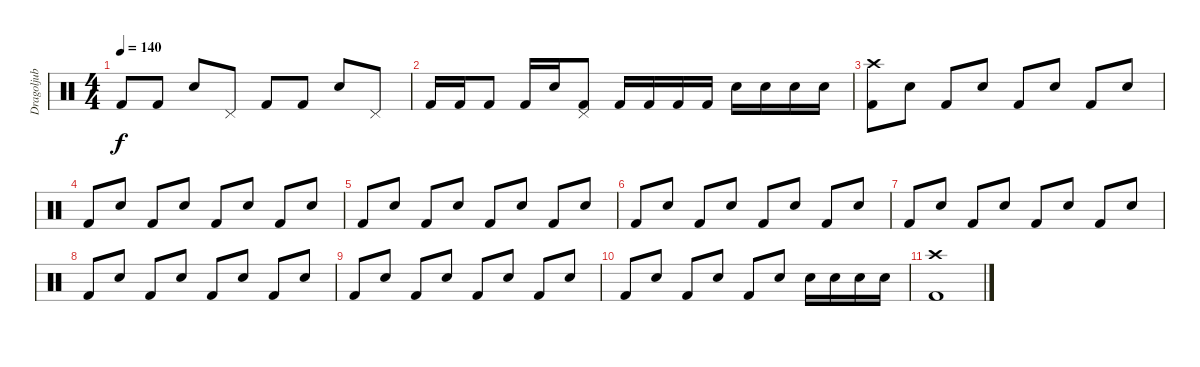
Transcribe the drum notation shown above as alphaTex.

\track ("Dragoljub Djuricic" "Dragoljub ") {instrument percussion}
\staff {score}
\articulation defaults
\ts (4 4)
\tempo 140
\clef neutral
\ks c "Kick (hit) 2".8{dy f} "Kick (hit) 2".8 "Snare (hit) 2".8 "Pedal Hi-Hat (hit)".8 "Kick (hit) 2".8 "Kick (hit) 2".8 "Snare (hit) 2".8 "Pedal Hi-Hat (hit)".8
|
"Kick (hit) 2".16 "Kick (hit) 2".16 "Kick (hit) 2".8 "Kick (hit) 2".16 "Snare (hit) 2".16 ("Kick (hit) 2" "Pedal Hi-Hat (hit)").8 "Kick (hit) 2".16 "Kick (hit) 2".16 "Kick (hit) 2".16 "Kick (hit) 2".16 "Snare (hit) 2".16 "Snare (hit) 2".16 "Snare (hit) 2".16 "Snare (hit) 2".16 |
("Kick (hit) 2" "Crash high (hit)").8 "Snare (hit) 2".8 "Kick (hit) 2".8 "Snare (hit) 2".8 "Kick (hit) 2".8 "Snare (hit) 2".8 "Kick (hit) 2".8 "Snare (hit) 2".8 |
"Kick (hit) 2".8 "Snare (hit) 2".8 "Kick (hit) 2".8 "Snare (hit) 2".8 "Kick (hit) 2".8 "Snare (hit) 2".8 "Kick (hit) 2".8 "Snare (hit) 2".8 |
"Kick (hit) 2".8 "Snare (hit) 2".8 "Kick (hit) 2".8 "Snare (hit) 2".8 "Kick (hit) 2".8 "Snare (hit) 2".8 "Kick (hit) 2".8 "Snare (hit) 2".8 |
"Kick (hit) 2".8 "Snare (hit) 2".8 "Kick (hit) 2".8 "Snare (hit) 2".8 "Kick (hit) 2".8 "Snare (hit) 2".8 "Kick (hit) 2".8 "Snare (hit) 2".8 |
"Kick (hit) 2".8 "Snare (hit) 2".8 "Kick (hit) 2".8 "Snare (hit) 2".8 "Kick (hit) 2".8 "Snare (hit) 2".8 "Kick (hit) 2".8 "Snare (hit) 2".8 |
"Kick (hit) 2".8 "Snare (hit) 2".8 "Kick (hit) 2".8 "Snare (hit) 2".8 "Kick (hit) 2".8 "Snare (hit) 2".8 "Kick (hit) 2".8 "Snare (hit) 2".8 |
"Kick (hit) 2".8 "Snare (hit) 2".8 "Kick (hit) 2".8 "Snare (hit) 2".8 "Kick (hit) 2".8 "Snare (hit) 2".8 "Kick (hit) 2".8 "Snare (hit) 2".8 |
"Kick (hit) 2".8 "Snare (hit) 2".8 "Kick (hit) 2".8 "Snare (hit) 2".8 "Kick (hit) 2".8 "Snare (hit) 2".8 "Snare (hit) 2".16 "Snare (hit) 2".16 "Snare (hit) 2".16 "Snare (hit) 2".16 |
("Kick (hit) 2" "Crash high (hit)").1
